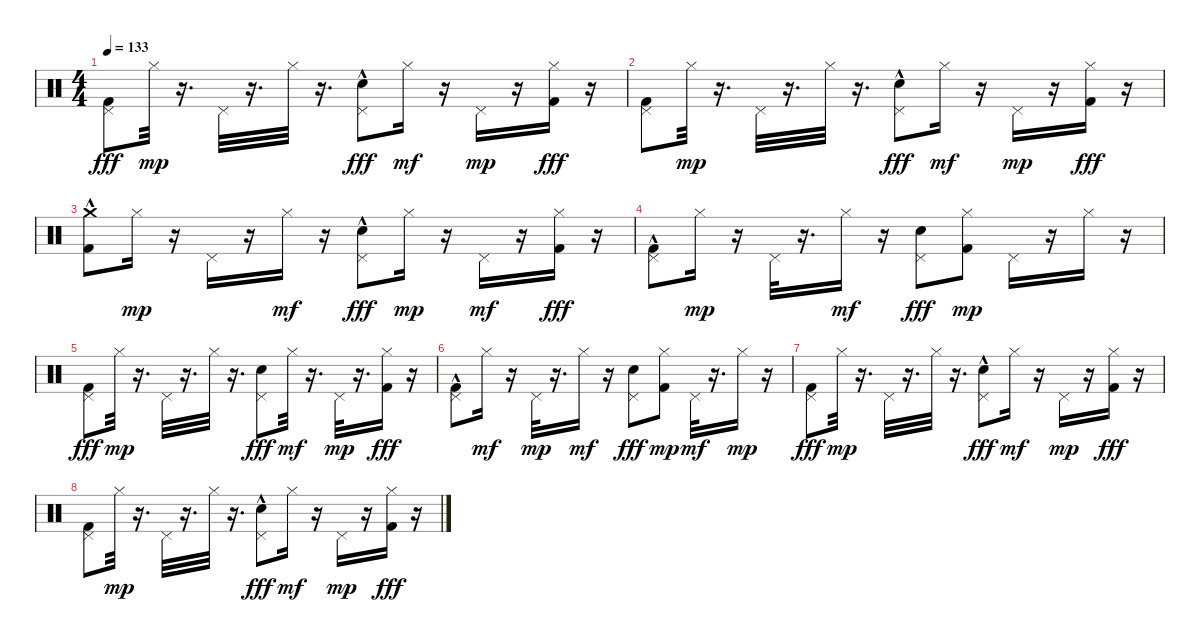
\track "" {instrument percussion}
\staff {score}
\articulation defaults
\ts (4 4)
\tempo 133
\clef neutral
\ks c
("Pedal Hi-Hat (hit)" "Kick (hit) 2").8{dy fff} "Hi-Hat (closed)".32{dy mp} r.16{d} "Pedal Hi-Hat (hit)".32 r.16{d} "Hi-Hat (closed)".32 r.16{d} ("Pedal Hi-Hat (hit)" "Snare (hit) 2"{hac}).8{dy fff} "Hi-Hat (closed)".16{dy mf} r.16 "Pedal Hi-Hat (hit)".16{dy mp} r.16 ("Hi-Hat (closed)" "Kick (hit) 2").16{dy fff} r.16 |
("Pedal Hi-Hat (hit)" "Kick (hit) 2").8 "Hi-Hat (closed)".32{dy mp} r.16{d} "Pedal Hi-Hat (hit)".32 r.16{d} "Hi-Hat (closed)".32 r.16{d} ("Pedal Hi-Hat (hit)" "Snare (hit) 2"{hac}).8{dy fff} "Hi-Hat (closed)".16{dy mf} r.16 "Pedal Hi-Hat (hit)".16{dy mp} r.16 ("Hi-Hat (closed)" "Kick (hit) 2").16{dy fff} r.16 |
("Crash medium (hit)" "Kick (hit) 2"{hac}).8 "Hi-Hat (closed)".16{dy mp} r.16 "Pedal Hi-Hat (hit)".16 r.16 "Hi-Hat (closed)".16{dy mf} r.16 ("Pedal Hi-Hat (hit)" "Snare (hit) 2"{hac}).8{dy fff} "Hi-Hat (closed)".16{dy mp} r.16 "Pedal Hi-Hat (hit)".16{dy mf} r.16 ("Hi-Hat (closed)" "Kick (hit) 2").16{dy fff} r.16 |
("Pedal Hi-Hat (hit)" "Kick (hit) 2"{hac}).8 "Hi-Hat (closed)".16{dy mp} r.16 "Pedal Hi-Hat (hit)".32 r.16{d} "Hi-Hat (closed)".16{dy mf} r.16 ("Pedal Hi-Hat (hit)" "Snare (hit) 2").8{dy fff} ("Kick (hit) 2" "Hi-Hat (closed)").8{dy mp} "Pedal Hi-Hat (hit)".16 r.16 "Hi-Hat (closed)".16 r.16 |
("Pedal Hi-Hat (hit)" "Kick (hit) 2").8{dy fff} "Hi-Hat (closed)".32{dy mp} r.16{d} "Pedal Hi-Hat (hit)".32 r.16{d} "Hi-Hat (closed)".32 r.16{d} ("Pedal Hi-Hat (hit)" "Snare (hit) 2").8{dy fff} "Hi-Hat (closed)".32{dy mf} r.16{d} "Pedal Hi-Hat (hit)".32{dy mp} r.16{d} ("Hi-Hat (closed)" "Kick (hit) 2").16{dy fff} r.16 |
("Pedal Hi-Hat (hit)" "Kick (hit) 2"{hac}).8 "Hi-Hat (closed)".16{dy mf} r.16 "Pedal Hi-Hat (hit)".32{dy mp} r.16{d} "Hi-Hat (closed)".16{dy mf} r.16 ("Pedal Hi-Hat (hit)" "Snare (hit) 2").8{dy fff} ("Kick (hit) 2" "Hi-Hat (closed)").8{dy mp} "Pedal Hi-Hat (hit)".32{dy mf} r.16{d} "Hi-Hat (closed)".16{dy mp} r.16 |
("Pedal Hi-Hat (hit)" "Kick (hit) 2").8{dy fff} "Hi-Hat (closed)".32{dy mp} r.16{d} "Pedal Hi-Hat (hit)".32 r.16{d} "Hi-Hat (closed)".32 r.16{d} ("Pedal Hi-Hat (hit)" "Snare (hit) 2"{hac}).8{dy fff} "Hi-Hat (closed)".16{dy mf} r.16 "Pedal Hi-Hat (hit)".16{dy mp} r.16 ("Hi-Hat (closed)" "Kick (hit) 2").16{dy fff} r.16 |
("Pedal Hi-Hat (hit)" "Kick (hit) 2").8 "Hi-Hat (closed)".32{dy mp} r.16{d} "Pedal Hi-Hat (hit)".32 r.16{d} "Hi-Hat (closed)".32 r.16{d} ("Pedal Hi-Hat (hit)" "Snare (hit) 2"{hac}).8{dy fff} "Hi-Hat (closed)".16{dy mf} r.16 "Pedal Hi-Hat (hit)".16{dy mp} r.16 ("Hi-Hat (closed)" "Kick (hit) 2").16{dy fff} r.16
